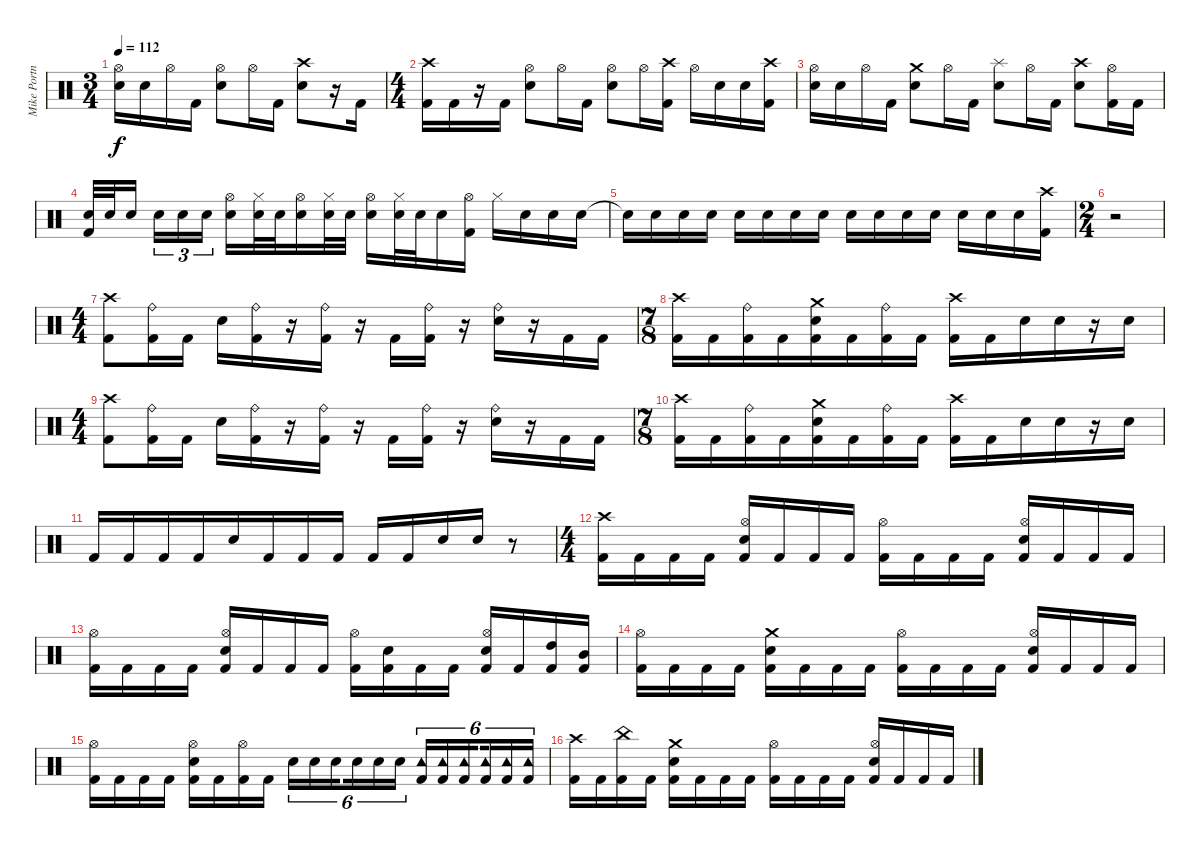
\track ("Mike Portnoy" "Mike Portn") {instrument percussion}
\staff {score}
\articulation defaults
\ts (3 4)
\tempo 112
\clef neutral
\ks c
("Electric Snare (hit)" "Hi-Hat (open)").16{dy f} "Electric Snare (hit)".16 "Hi-Hat (open)".16 "Kick (hit) 2".16 ("Electric Snare (hit)" "Hi-Hat (open)").8 "Hi-Hat (open)".16 "Kick (hit) 2".16 ("Electric Snare (hit)" "Crash high (hit)").8 r.16 "Kick (hit) 2".16 |
\ts (4 4)
("Kick (hit) 2" "Crash high (hit)").16 "Kick (hit) 2".16 r.16 "Kick (hit) 2".16 ("Electric Snare (hit)" "Hi-Hat (open)").8 "Hi-Hat (open)".16 "Kick (hit) 2".16 ("Electric Snare (hit)" "Hi-Hat (open)").8 "Hi-Hat (open)".16 ("Kick (hit) 2" "Crash high (hit)").16 "Hi-Hat (open)".16 "Electric Snare (hit)".16 "Electric Snare (hit)".16 ("Kick (hit) 2" "Crash high (hit)").16 |
("Electric Snare (hit)" "Hi-Hat (open)").16 "Electric Snare (hit)".16 "Hi-Hat (open)".16 "Kick (hit) 2".16 ("Electric Snare (hit)" "Crash medium (hit)").8 "Hi-Hat (open)".16 "Kick (hit) 2".16 ("Electric Snare (hit)" "Splash (hit)").8 "Hi-Hat (open)".16 "Kick (hit) 2".16 ("Electric Snare (hit)" "Crash high (hit)").8 ("Kick (hit) 2" "Hi-Hat (open)").16 "Kick (hit) 2".16 |
("Kick (hit) 2" "Electric Snare (hit)").32 "Electric Snare (hit)".32 "Electric Snare (hit)".16{beam splitsecondary} "Electric Snare (hit)".16{tu (3 2)} "Electric Snare (hit)".16{tu (3 2)} "Electric Snare (hit)".16{tu (3 2)} ("Electric Snare (hit)" "Hi-Hat (open)").16 ("Electric Snare (hit)" "Hi-Hat (closed)").32 "Electric Snare (hit)".32 ("Electric Snare (hit)" "Hi-Hat (open)").16 ("Electric Snare (hit)" "Hi-Hat (closed)").32 "Electric Snare (hit)".32 ("Electric Snare (hit)" "Hi-Hat (open)").16 ("Electric Snare (hit)" "Hi-Hat (closed)").32 "Electric Snare (hit)".32 "Electric Snare (hit)".16 ("Kick (hit) 2" "Hi-Hat (open)").16 "Hi-Hat (closed)".16 "Electric Snare (hit)".16 "Electric Snare (hit)".16 "Electric Snare (hit)".16 |
"Snare (hit)"{t}.16 "Electric Snare (hit)".16 "Electric Snare (hit)".16 "Electric Snare (hit)".16 "Electric Snare (hit)".16 "Electric Snare (hit)".16 "Electric Snare (hit)".16 "Electric Snare (hit)".16 "Electric Snare (hit)".16 "Electric Snare (hit)".16 "Electric Snare (hit)".16 "Electric Snare (hit)".16 "Electric Snare (hit)".16 "Electric Snare (hit)".16 "Electric Snare (hit)".16 ("Kick (hit) 2" "Crash high (hit)").16 |
\ts (2 4)
r.2 |
\ts (4 4)
("Kick (hit) 2" "Crash high (hit)").8 ("Kick (hit) 2" "Ride (bell)").16 "Kick (hit) 2".16 "Electric Snare (hit)".16 ("Kick (hit) 2" "Ride (bell)").16 r.16 ("Kick (hit) 2" "Ride (bell)").16 r.16 "Kick (hit) 2".16 ("Kick (hit) 2" "Ride (bell)").16 r.16 ("Electric Snare (hit)" "Ride (bell)").16 r.16 "Kick (hit) 2".16 "Kick (hit) 2".16 |
\ts (7 8)
("Kick (hit) 2" "Crash high (hit)").16 "Kick (hit) 2".16 ("Kick (hit) 2" "Ride (bell)").16 "Kick (hit) 2".16 ("Kick (hit) 2" "Electric Snare (hit)" "Crash medium (hit)").16 "Kick (hit) 2".16 ("Kick (hit) 2" "Ride (bell)").16 "Kick (hit) 2".16 ("Kick (hit) 2" "Crash high (hit)").16 "Kick (hit) 2".16 "Electric Snare (hit)".16 "Electric Snare (hit)".16 r.16 "Electric Snare (hit)".16 |
\ts (4 4)
("Kick (hit) 2" "Crash high (hit)").8 ("Kick (hit) 2" "Ride (bell)").16 "Kick (hit) 2".16 "Electric Snare (hit)".16 ("Kick (hit) 2" "Ride (bell)").16 r.16 ("Kick (hit) 2" "Ride (bell)").16 r.16 "Kick (hit) 2".16 ("Kick (hit) 2" "Ride (bell)").16 r.16 ("Electric Snare (hit)" "Ride (bell)").16 r.16 "Kick (hit) 2".16 "Kick (hit) 2".16 |
\ts (7 8)
("Kick (hit) 2" "Crash high (hit)").16 "Kick (hit) 2".16 ("Kick (hit) 2" "Ride (bell)").16 "Kick (hit) 2".16 ("Kick (hit) 2" "Electric Snare (hit)" "Crash medium (hit)").16 "Kick (hit) 2".16 ("Kick (hit) 2" "Ride (bell)").16 "Kick (hit) 2".16 ("Kick (hit) 2" "Crash high (hit)").16 "Kick (hit) 2".16 "Electric Snare (hit)".16 "Electric Snare (hit)".16 r.16 "Electric Snare (hit)".16 |
"Kick (hit) 2".16 "Kick (hit) 2".16 "Kick (hit) 2".16 "Kick (hit) 2".16 "Electric Snare (hit)".16 "Kick (hit) 2".16 "Kick (hit) 2".16 "Kick (hit) 2".16 "Kick (hit) 2".16 "Kick (hit) 2".16 "Electric Snare (hit)".16 "Electric Snare (hit)".16 r.8 |
\ts (4 4)
("Kick (hit) 2" "Crash high (hit)").16 "Kick (hit) 2".16 "Kick (hit) 2".16 "Kick (hit) 2".16 ("Kick (hit) 2" "Electric Snare (hit)" "Hi-Hat (open)").16 "Kick (hit) 2".16 "Kick (hit) 2".16 "Kick (hit) 2".16 ("Kick (hit) 2" "Hi-Hat (open)").16 "Kick (hit) 2".16 "Kick (hit) 2".16 "Kick (hit) 2".16 ("Kick (hit) 2" "Electric Snare (hit)" "Hi-Hat (open)").16 "Kick (hit) 2".16 "Kick (hit) 2".16 "Kick (hit) 2".16 |
("Kick (hit) 2" "Hi-Hat (open)").16 "Kick (hit) 2".16 "Kick (hit) 2".16 "Kick (hit) 2".16 ("Kick (hit) 2" "Electric Snare (hit)" "Hi-Hat (open)").16 "Kick (hit) 2".16 "Kick (hit) 2".16 "Kick (hit) 2".16 ("Kick (hit) 2" "Hi-Hat (open)").16 ("Kick (hit) 2" "Electric Snare (hit)").16 "Kick (hit) 2".16 "Kick (hit) 2".16 ("Kick (hit) 2" "Electric Snare (hit)" "Hi-Hat (open)").16 "Kick (hit) 2".16 ("Kick (hit) 2" "High Tom (hit)").16 ("Kick (hit) 2" "Mid Tom (hit)").16 |
("Kick (hit) 2" "Hi-Hat (open)").16 "Kick (hit) 2".16 "Kick (hit) 2".16 "Kick (hit) 2".16 ("Kick (hit) 2" "Electric Snare (hit)" "Crash medium (hit)").16 "Kick (hit) 2".16 "Kick (hit) 2".16 "Kick (hit) 2".16 ("Kick (hit) 2" "Hi-Hat (open)").16 "Kick (hit) 2".16 "Kick (hit) 2".16 "Kick (hit) 2".16 ("Kick (hit) 2" "Electric Snare (hit)" "Hi-Hat (open)").16 "Kick (hit) 2".16 "Kick (hit) 2".16 "Kick (hit) 2".16 |
("Kick (hit) 2" "Hi-Hat (open)").16 "Kick (hit) 2".16 "Kick (hit) 2".16 "Kick (hit) 2".16 ("Kick (hit) 2" "Electric Snare (hit)" "Hi-Hat (open)").16 "Kick (hit) 2".16 ("Kick (hit) 2" "Hi-Hat (open)").16 "Kick (hit) 2".16 "Electric Snare (hit)".16{tu (6 4)} "Electric Snare (hit)".16{tu (6 4)} "Electric Snare (hit)".16{tu (6 4) beam splitsecondary} "Electric Snare (hit)".16{tu (6 4)} "Electric Snare (hit)".16{tu (6 4)} "Electric Snare (hit)".16{tu (6 4)} ("Kick (hit) 2" "Tambourine (hit)").16{tu (6 4)} ("Kick (hit) 2" "Tambourine (hit)").16{tu (6 4)} ("Kick (hit) 2" "Tambourine (hit)").16{tu (6 4) beam splitsecondary} ("Kick (hit) 2" "Tambourine (hit)").16{tu (6 4)} ("Kick (hit) 2" "Tambourine (hit)").16{tu (6 4)} ("Kick (hit) 2" "Tambourine (hit)").16{tu (6 4)} |
("Kick (hit) 2" "Crash high (hit)").16 "Kick (hit) 2".16 ("Kick (hit) 2" "China (hit)").16 "Kick (hit) 2".16 ("Kick (hit) 2" "Electric Snare (hit)" "Crash medium (hit)").16 "Kick (hit) 2".16 "Kick (hit) 2".16 "Kick (hit) 2".16 ("Kick (hit) 2" "Hi-Hat (open)").16 "Kick (hit) 2".16 "Kick (hit) 2".16 "Kick (hit) 2".16 ("Kick (hit) 2" "Electric Snare (hit)" "Hi-Hat (open)").16 "Kick (hit) 2".16 "Kick (hit) 2".16 "Kick (hit) 2".16
